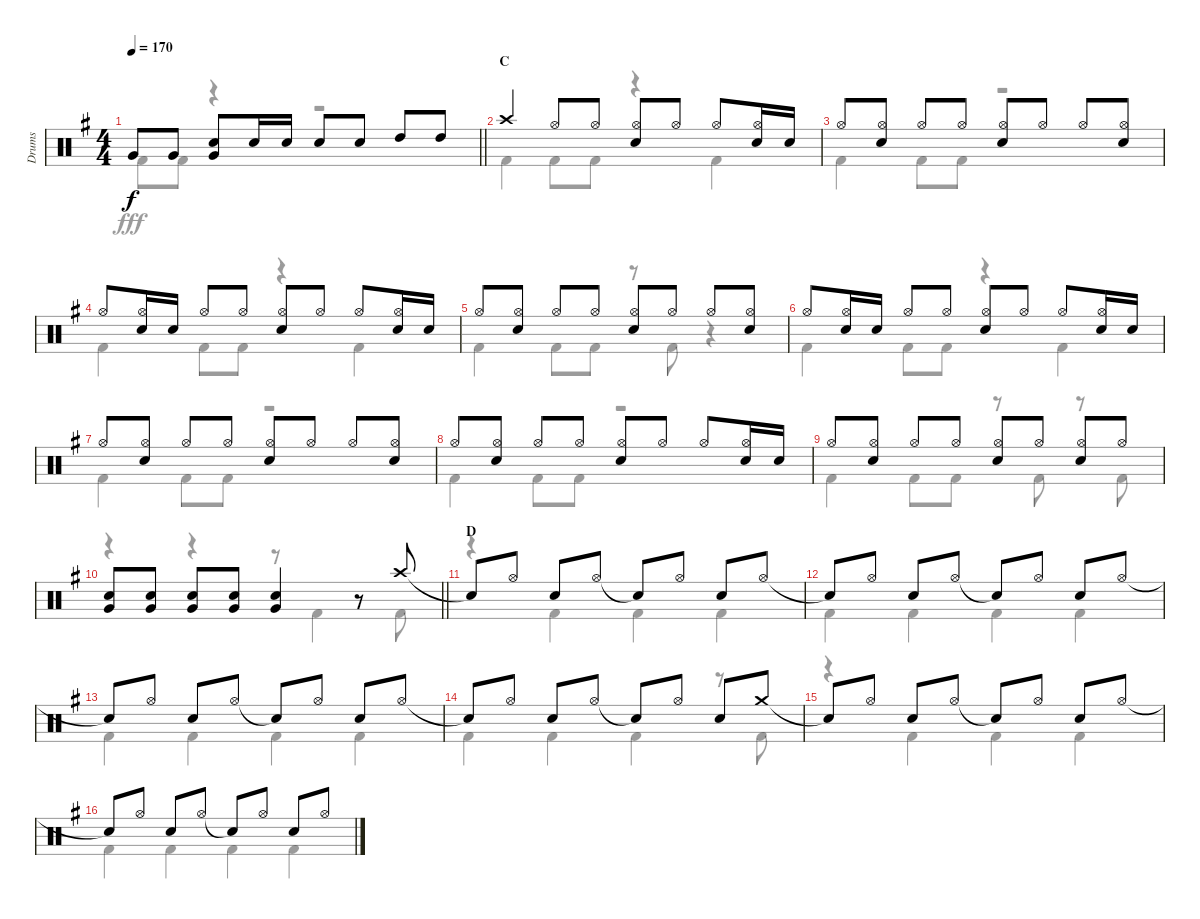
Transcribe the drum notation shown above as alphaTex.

\track ("Drums" "Drums") {instrument percussion}
\staff {score}
\articulation defaults
\voice
\ts (4 4)
\tempo 170
\clef neutral
\barLineRight lightlight
\ks g "Very Low Tom (hit)".8{dy f} "Very Low Tom (hit)".8
("Snare (hit) 2" "Very Low Tom (hit)").8 "Snare (hit) 2".16 "Snare (hit) 2".16 "Snare (hit) 2".8 "Snare (hit) 2".8 "High Tom (hit)".8 "High Tom (hit)".8 |
\section ("" "C")
"Crash high (hit)".4 "Hi-Hat (open)".8 "Hi-Hat (open)".8 ("Hi-Hat (open)" "Snare (hit) 2").8 "Hi-Hat (open)".8 "Hi-Hat (open)".8 ("Hi-Hat (open)" "Snare (hit) 2").16 "Snare (hit) 2".16 |
"Hi-Hat (open)".8 ("Hi-Hat (open)" "Snare (hit) 2").8 "Hi-Hat (open)".8 "Hi-Hat (open)".8 ("Hi-Hat (open)" "Snare (hit) 2").8 "Hi-Hat (open)".8 "Hi-Hat (open)".8 ("Hi-Hat (open)" "Snare (hit) 2").8 |
"Hi-Hat (open)".8 ("Hi-Hat (open)" "Snare (hit) 2").16 "Snare (hit) 2".16 "Hi-Hat (open)".8 "Hi-Hat (open)".8 ("Hi-Hat (open)" "Snare (hit) 2").8 "Hi-Hat (open)".8 "Hi-Hat (open)".8 ("Hi-Hat (open)" "Snare (hit) 2").16 "Snare (hit) 2".16 |
"Hi-Hat (open)".8 ("Hi-Hat (open)" "Snare (hit) 2").8 "Hi-Hat (open)".8 "Hi-Hat (open)".8 ("Hi-Hat (open)" "Snare (hit) 2").8 "Hi-Hat (open)".8 "Hi-Hat (open)".8 ("Hi-Hat (open)" "Snare (hit) 2").8 |
"Hi-Hat (open)".8 ("Hi-Hat (open)" "Snare (hit) 2").16 "Snare (hit) 2".16 "Hi-Hat (open)".8 "Hi-Hat (open)".8 ("Hi-Hat (open)" "Snare (hit) 2").8 "Hi-Hat (open)".8 "Hi-Hat (open)".8 ("Hi-Hat (open)" "Snare (hit) 2").16 "Snare (hit) 2".16 |
"Hi-Hat (open)".8 ("Hi-Hat (open)" "Snare (hit) 2").8 "Hi-Hat (open)".8 "Hi-Hat (open)".8 ("Hi-Hat (open)" "Snare (hit) 2").8 "Hi-Hat (open)".8 "Hi-Hat (open)".8 ("Hi-Hat (open)" "Snare (hit) 2").8 |
"Hi-Hat (open)".8 ("Hi-Hat (open)" "Snare (hit) 2").8 "Hi-Hat (open)".8 "Hi-Hat (open)".8 ("Hi-Hat (open)" "Snare (hit) 2").8 "Hi-Hat (open)".8 "Hi-Hat (open)".8 ("Hi-Hat (open)" "Snare (hit) 2").16 "Snare (hit) 2".16 |
"Hi-Hat (open)".8 ("Hi-Hat (open)" "Snare (hit) 2").8 "Hi-Hat (open)".8 "Hi-Hat (open)".8 ("Hi-Hat (open)" "Snare (hit) 2").8 "Hi-Hat (open)".8 ("Hi-Hat (open)" "Snare (hit) 2").8 "Hi-Hat (open)".8 |
\barLineRight lightlight
("Snare (hit) 2" "Very Low Tom (hit)").8 ("Snare (hit) 2" "Very Low Tom (hit)").8 ("Snare (hit) 2" "Very Low Tom (hit)").8 ("Snare (hit) 2" "Very Low Tom (hit)").8 ("Snare (hit) 2" "Very Low Tom (hit)").4 r.8 "Crash high (hit)".8 |
\section ("" "D")
"Snare (hit)"{t}.8 "Hi-Hat (open)".8 "Snare (hit) 2".8 "Hi-Hat (open)".8 "Snare (hit)"{t}.8 "Hi-Hat (open)".8 "Snare (hit) 2".8 "Hi-Hat (open)".8 |
"Snare (hit)"{t}.8 "Hi-Hat (open)".8 "Snare (hit) 2".8 "Hi-Hat (open)".8 "Snare (hit)"{t}.8 "Hi-Hat (open)".8 "Snare (hit) 2".8 "Hi-Hat (open)".8 |
"Snare (hit)"{t}.8 "Hi-Hat (open)".8 "Snare (hit) 2".8 "Hi-Hat (open)".8 "Snare (hit)"{t}.8 "Hi-Hat (open)".8 "Snare (hit) 2".8 "Hi-Hat (open)".8 |
"Snare (hit)"{t}.8 "Hi-Hat (open)".8 "Snare (hit) 2".8 "Hi-Hat (open)".8 "Snare (hit)"{t}.8 "Hi-Hat (open)".8 "Snare (hit) 2".8 "Crash medium (hit)".8 |
"Snare (hit)"{t}.8 "Hi-Hat (open)".8 "Snare (hit) 2".8 "Hi-Hat (open)".8 "Snare (hit)"{t}.8 "Hi-Hat (open)".8 "Snare (hit) 2".8 "Hi-Hat (open)".8 |
"Snare (hit)"{t}.8 "Hi-Hat (open)".8 "Snare (hit) 2".8 "Hi-Hat (open)".8 "Snare (hit)"{t}.8 "Hi-Hat (open)".8 "Snare (hit) 2".8 "Hi-Hat (open)".8
\voice
\clef neutral
\ottava regular
\simile none
\barLineRight lightlight
\ks g "Kick (hit) 2".8{dy fff} "Kick (hit) 2".8
r.4 r.2 |
"Kick (hit) 2".4 "Kick (hit) 2".8 "Kick (hit) 2".8 r.4 "Kick (hit) 2".4 |
"Kick (hit) 2".4 "Kick (hit) 2".8 "Kick (hit) 2".8 r.2 |
"Kick (hit) 2".4 "Kick (hit) 2".8 "Kick (hit) 2".8 r.4 "Kick (hit) 2".4 |
"Kick (hit) 2".4 "Kick (hit) 2".8 "Kick (hit) 2".8 r.8 "Kick (hit) 2".8 r.4 |
"Kick (hit) 2".4 "Kick (hit) 2".8 "Kick (hit) 2".8 r.4 "Kick (hit) 2".4 |
"Kick (hit) 2".4 "Kick (hit) 2".8 "Kick (hit) 2".8 r.2 |
"Kick (hit) 2".4 "Kick (hit) 2".8 "Kick (hit) 2".8 r.2 |
"Kick (hit) 2".4 "Kick (hit) 2".8 "Kick (hit) 2".8 r.8 "Kick (hit) 2".8 r.8 "Kick (hit) 2".8 |
\barLineRight lightlight
r.4 r.4 r.8 "Kick (hit) 2".4 "Kick (hit) 2".8 |
r.4 "Kick (hit) 2".4 "Kick (hit) 2".4 "Kick (hit) 2".4 |
"Kick (hit) 2".4 "Kick (hit) 2".4 "Kick (hit) 2".4 "Kick (hit) 2".4 |
"Kick (hit) 2".4 "Kick (hit) 2".4 "Kick (hit) 2".4 "Kick (hit) 2".4 |
"Kick (hit) 2".4 "Kick (hit) 2".4 "Kick (hit) 2".4 r.8 "Kick (hit) 2".8 |
r.4 "Kick (hit) 2".4 "Kick (hit) 2".4 "Kick (hit) 2".4 |
"Kick (hit) 2".4 "Kick (hit) 2".4 "Kick (hit) 2".4 "Kick (hit) 2".4
